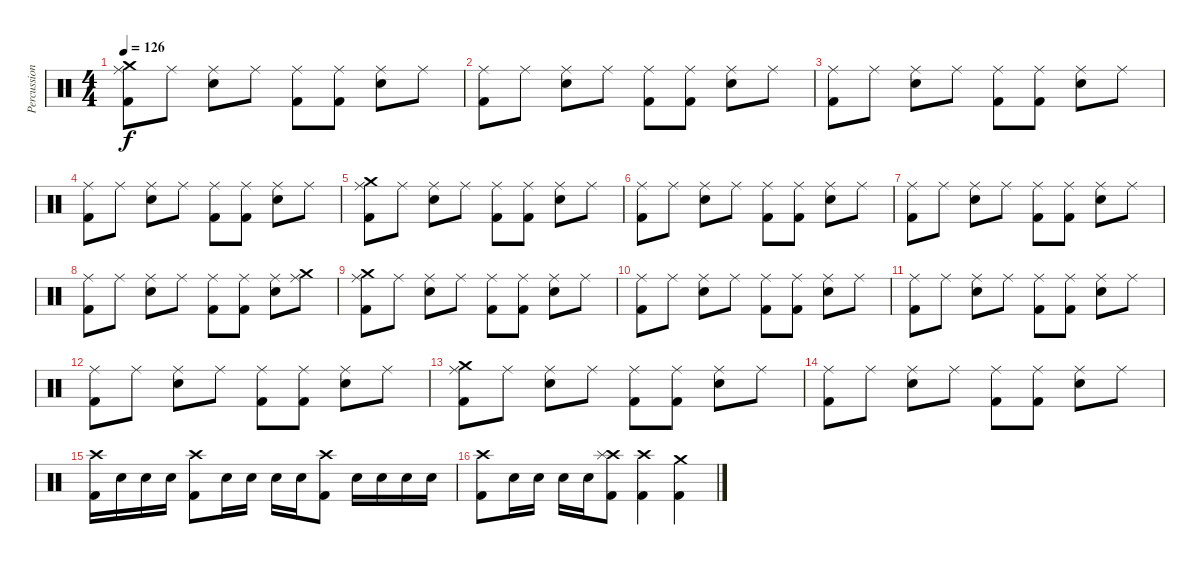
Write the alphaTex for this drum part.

\track ("Percussions" "Percussion") {instrument percussion}
\staff {score}
\articulation defaults
\ts (4 4)
\tempo 126
\clef neutral
\ks c
("Crash medium (hit)" "Ride (middle)" "Kick (hit) 2").8{dy f} "Ride (middle)".8 ("Ride (middle)" "Electric Snare (hit)").8 "Ride (middle)".8 ("Ride (middle)" "Kick (hit) 2").8 ("Ride (middle)" "Kick (hit) 2").8 ("Ride (middle)" "Electric Snare (hit)").8 "Ride (middle)".8 |
("Ride (middle)" "Kick (hit) 2").8 "Ride (middle)".8 ("Ride (middle)" "Electric Snare (hit)").8 "Ride (middle)".8 ("Ride (middle)" "Kick (hit) 2").8 ("Ride (middle)" "Kick (hit) 2").8 ("Ride (middle)" "Electric Snare (hit)").8 "Ride (middle)".8 |
("Ride (middle)" "Kick (hit) 2").8 "Ride (middle)".8 ("Ride (middle)" "Electric Snare (hit)").8 "Ride (middle)".8 ("Ride (middle)" "Kick (hit) 2").8 ("Ride (middle)" "Kick (hit) 2").8 ("Ride (middle)" "Electric Snare (hit)").8 "Ride (middle)".8 |
("Ride (middle)" "Kick (hit) 2").8 "Ride (middle)".8 ("Ride (middle)" "Electric Snare (hit)").8 "Ride (middle)".8 ("Ride (middle)" "Kick (hit) 2").8 ("Ride (middle)" "Kick (hit) 2").8 ("Ride (middle)" "Electric Snare (hit)").8 "Ride (middle)".8 |
("Crash medium (hit)" "Ride (middle)" "Kick (hit) 2").8 "Ride (middle)".8 ("Ride (middle)" "Electric Snare (hit)").8 "Ride (middle)".8 ("Ride (middle)" "Kick (hit) 2").8 ("Ride (middle)" "Kick (hit) 2").8 ("Ride (middle)" "Electric Snare (hit)").8 "Ride (middle)".8 |
("Ride (middle)" "Kick (hit) 2").8 "Ride (middle)".8 ("Ride (middle)" "Electric Snare (hit)").8 "Ride (middle)".8 ("Ride (middle)" "Kick (hit) 2").8 ("Ride (middle)" "Kick (hit) 2").8 ("Ride (middle)" "Electric Snare (hit)").8 "Ride (middle)".8 |
("Ride (middle)" "Kick (hit) 2").8 "Ride (middle)".8 ("Ride (middle)" "Electric Snare (hit)").8 "Ride (middle)".8 ("Ride (middle)" "Kick (hit) 2").8 ("Ride (middle)" "Kick (hit) 2").8 ("Ride (middle)" "Electric Snare (hit)").8 "Ride (middle)".8 |
("Ride (middle)" "Kick (hit) 2").8 "Ride (middle)".8 ("Ride (middle)" "Electric Snare (hit)").8 "Ride (middle)".8 ("Ride (middle)" "Kick (hit) 2").8 ("Ride (middle)" "Kick (hit) 2").8 ("Ride (middle)" "Electric Snare (hit)").8 ("Ride (middle)" "Crash medium (hit)").8 |
("Crash medium (hit)" "Ride (middle)" "Kick (hit) 2").8 "Ride (middle)".8 ("Ride (middle)" "Electric Snare (hit)").8 "Ride (middle)".8 ("Ride (middle)" "Kick (hit) 2").8 ("Ride (middle)" "Kick (hit) 2").8 ("Ride (middle)" "Electric Snare (hit)").8 "Ride (middle)".8 |
("Ride (middle)" "Kick (hit) 2").8 "Ride (middle)".8 ("Ride (middle)" "Electric Snare (hit)").8 "Ride (middle)".8 ("Ride (middle)" "Kick (hit) 2").8 ("Ride (middle)" "Kick (hit) 2").8 ("Ride (middle)" "Electric Snare (hit)").8 "Ride (middle)".8 |
("Ride (middle)" "Kick (hit) 2").8 "Ride (middle)".8 ("Ride (middle)" "Electric Snare (hit)").8 "Ride (middle)".8 ("Ride (middle)" "Kick (hit) 2").8 ("Ride (middle)" "Kick (hit) 2").8 ("Ride (middle)" "Electric Snare (hit)").8 "Ride (middle)".8 |
("Ride (middle)" "Kick (hit) 2").8 "Ride (middle)".8 ("Ride (middle)" "Electric Snare (hit)").8 "Ride (middle)".8 ("Ride (middle)" "Kick (hit) 2").8 ("Ride (middle)" "Kick (hit) 2").8 ("Ride (middle)" "Electric Snare (hit)").8 "Ride (middle)".8 |
("Crash medium (hit)" "Ride (middle)" "Kick (hit) 2").8 "Ride (middle)".8 ("Ride (middle)" "Electric Snare (hit)").8 "Ride (middle)".8 ("Ride (middle)" "Kick (hit) 2").8 ("Ride (middle)" "Kick (hit) 2").8 ("Ride (middle)" "Electric Snare (hit)").8 "Ride (middle)".8 |
("Ride (middle)" "Kick (hit) 2").8 "Ride (middle)".8 ("Ride (middle)" "Electric Snare (hit)").8 "Ride (middle)".8 ("Ride (middle)" "Kick (hit) 2").8 ("Ride (middle)" "Kick (hit) 2").8 ("Ride (middle)" "Electric Snare (hit)").8 "Ride (middle)".8 |
("Crash high (hit)" "Kick (hit) 2").16 "Electric Snare (hit)".16 "Electric Snare (hit)".16 "Electric Snare (hit)".16 ("Crash high (hit)" "Kick (hit) 2").8 "Electric Snare (hit)".16 "Electric Snare (hit)".16 "Electric Snare (hit)".16 "Electric Snare (hit)".16 ("Crash high (hit)" "Kick (hit) 2").8 "Electric Snare (hit)".16 "Electric Snare (hit)".16 "Electric Snare (hit)".16 "Electric Snare (hit)".16 |
("Crash high (hit)" "Kick (hit) 2").8 "Electric Snare (hit)".16 "Electric Snare (hit)".16 "Electric Snare (hit)".16 "Electric Snare (hit)".16 ("Crash high (hit)" "Splash (hit)" "Kick (hit) 2").8 ("Crash high (hit)" "Kick (hit) 2").4 ("Crash medium (hit)" "Kick (hit) 2").4
